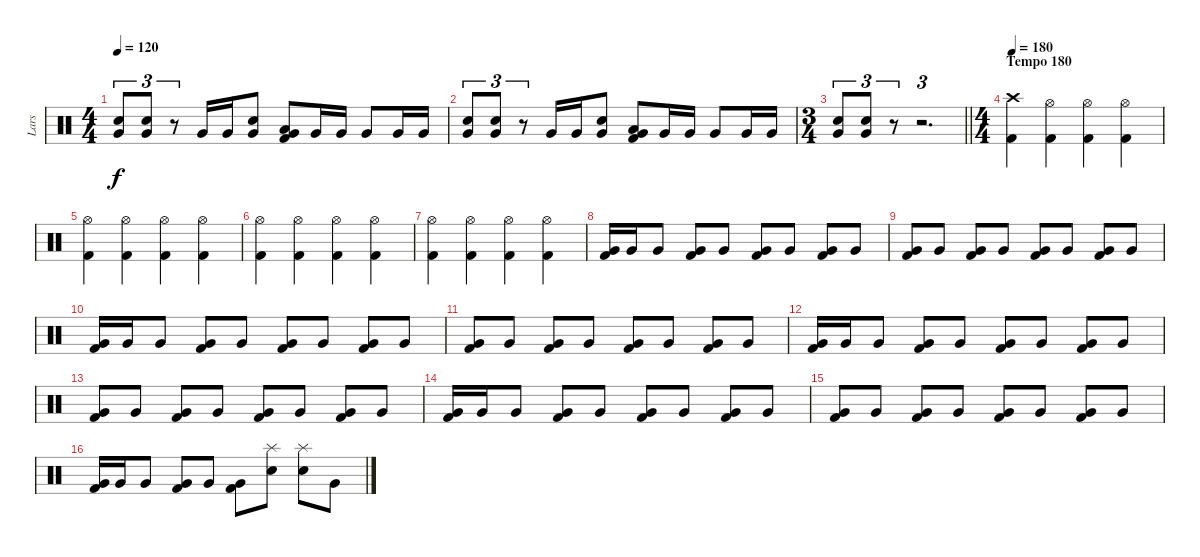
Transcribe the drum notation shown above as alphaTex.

\track ("Lars" "Lars") {instrument percussion}
\staff {score}
\articulation defaults
\ts (4 4)
\tempo 120
\clef neutral
\ks c
("Very Low Tom (hit)" "Electric Snare (hit)").8{tu (3 2) dy f} ("Very Low Tom (hit)" "Electric Snare (hit)").8{tu (3 2)} r.8{tu (3 2)} "Very Low Tom (hit)".16 "Very Low Tom (hit)".16 ("Very Low Tom (hit)" "Electric Snare (hit)").8 ("Low Tom (hit)" "Very Low Tom (hit)" "Kick (hit) 2").8 "Very Low Tom (hit)".16 "Very Low Tom (hit)".16 "Very Low Tom (hit)".8 "Very Low Tom (hit)".16 "Very Low Tom (hit)".16 |
("Very Low Tom (hit)" "Electric Snare (hit)").8{tu (3 2)} ("Very Low Tom (hit)" "Electric Snare (hit)").8{tu (3 2)} r.8{tu (3 2)} "Very Low Tom (hit)".16 "Very Low Tom (hit)".16 ("Very Low Tom (hit)" "Electric Snare (hit)").8 ("Low Tom (hit)" "Very Low Tom (hit)" "Kick (hit) 2").8 "Very Low Tom (hit)".16 "Very Low Tom (hit)".16 "Very Low Tom (hit)".8 "Very Low Tom (hit)".16 "Very Low Tom (hit)".16 |
\ts (3 4)
\barLineRight lightlight
("Very Low Tom (hit)" "Electric Snare (hit)").8{tu (3 2)} ("Very Low Tom (hit)" "Electric Snare (hit)").8{tu (3 2)} r.8{tu (3 2)} r.2{d tu (3 2)} |
\ts (4 4)
\section ("" "Tempo 180")
\tempo 180
("Crash high (hit)" "Kick (hit) 2").4 ("Hi-Hat (open)" "Kick (hit) 2").4 ("Hi-Hat (open)" "Kick (hit) 2").4 ("Hi-Hat (open)" "Kick (hit) 2").4 |
("Hi-Hat (open)" "Kick (hit) 2").4 ("Hi-Hat (open)" "Kick (hit) 2").4 ("Hi-Hat (open)" "Kick (hit) 2").4 ("Hi-Hat (open)" "Kick (hit) 2").4 |
("Hi-Hat (open)" "Kick (hit) 2").4 ("Hi-Hat (open)" "Kick (hit) 2").4 ("Hi-Hat (open)" "Kick (hit) 2").4 ("Hi-Hat (open)" "Kick (hit) 2").4 |
("Hi-Hat (open)" "Kick (hit) 2").4 ("Hi-Hat (open)" "Kick (hit) 2").4 ("Hi-Hat (open)" "Kick (hit) 2").4 ("Hi-Hat (open)" "Kick (hit) 2").4 |
("Very Low Tom (hit)" "Kick (hit) 2").16 "Very Low Tom (hit)".16 "Very Low Tom (hit)".8 ("Very Low Tom (hit)" "Kick (hit) 2").8 "Very Low Tom (hit)".8 ("Very Low Tom (hit)" "Kick (hit) 2").8 "Very Low Tom (hit)".8 ("Very Low Tom (hit)" "Kick (hit) 2").8 "Very Low Tom (hit)".8 |
("Very Low Tom (hit)" "Kick (hit) 2").8 "Very Low Tom (hit)".8 ("Very Low Tom (hit)" "Kick (hit) 2").8 "Very Low Tom (hit)".8 ("Very Low Tom (hit)" "Kick (hit) 2").8 "Very Low Tom (hit)".8 ("Very Low Tom (hit)" "Kick (hit) 2").8 "Very Low Tom (hit)".8 |
("Very Low Tom (hit)" "Kick (hit) 2").16 "Very Low Tom (hit)".16 "Very Low Tom (hit)".8 ("Very Low Tom (hit)" "Kick (hit) 2").8 "Very Low Tom (hit)".8 ("Very Low Tom (hit)" "Kick (hit) 2").8 "Very Low Tom (hit)".8 ("Very Low Tom (hit)" "Kick (hit) 2").8 "Very Low Tom (hit)".8 |
("Very Low Tom (hit)" "Kick (hit) 2").8 "Very Low Tom (hit)".8 ("Very Low Tom (hit)" "Kick (hit) 2").8 "Very Low Tom (hit)".8 ("Very Low Tom (hit)" "Kick (hit) 2").8 "Very Low Tom (hit)".8 ("Very Low Tom (hit)" "Kick (hit) 2").8 "Very Low Tom (hit)".8 |
("Very Low Tom (hit)" "Kick (hit) 2").16 "Very Low Tom (hit)".16 "Very Low Tom (hit)".8 ("Very Low Tom (hit)" "Kick (hit) 2").8 "Very Low Tom (hit)".8 ("Very Low Tom (hit)" "Kick (hit) 2").8 "Very Low Tom (hit)".8 ("Very Low Tom (hit)" "Kick (hit) 2").8 "Very Low Tom (hit)".8 |
("Very Low Tom (hit)" "Kick (hit) 2").8 "Very Low Tom (hit)".8 ("Very Low Tom (hit)" "Kick (hit) 2").8 "Very Low Tom (hit)".8 ("Very Low Tom (hit)" "Kick (hit) 2").8 "Very Low Tom (hit)".8 ("Very Low Tom (hit)" "Kick (hit) 2").8 "Very Low Tom (hit)".8 |
("Very Low Tom (hit)" "Kick (hit) 2").16 "Very Low Tom (hit)".16 "Very Low Tom (hit)".8 ("Very Low Tom (hit)" "Kick (hit) 2").8 "Very Low Tom (hit)".8 ("Very Low Tom (hit)" "Kick (hit) 2").8 "Very Low Tom (hit)".8 ("Very Low Tom (hit)" "Kick (hit) 2").8 "Very Low Tom (hit)".8 |
("Very Low Tom (hit)" "Kick (hit) 2").8 "Very Low Tom (hit)".8 ("Very Low Tom (hit)" "Kick (hit) 2").8 "Very Low Tom (hit)".8 ("Very Low Tom (hit)" "Kick (hit) 2").8 "Very Low Tom (hit)".8 ("Very Low Tom (hit)" "Kick (hit) 2").8 "Very Low Tom (hit)".8 |
("Very Low Tom (hit)" "Kick (hit) 2").16 "Very Low Tom (hit)".16 "Very Low Tom (hit)".8 ("Very Low Tom (hit)" "Kick (hit) 2").8 "Very Low Tom (hit)".8 ("Very Low Tom (hit)" "Kick (hit) 2").8 ("Splash (hit)" "Electric Snare (hit)").8 ("Splash (hit)" "Electric Snare (hit)").8 "Very Low Tom (hit)".8
